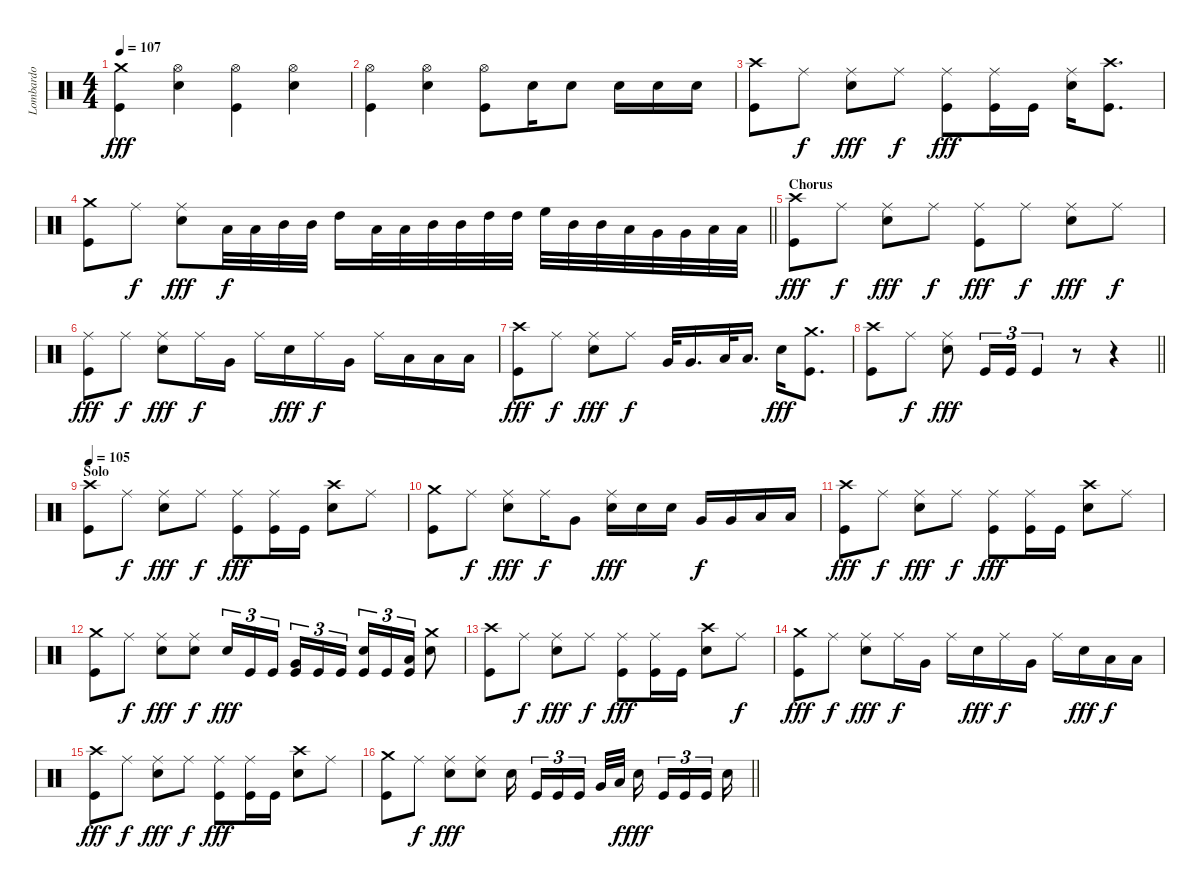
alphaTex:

\track ("Lombardo" "Lombardo") {instrument percussion}
\staff {score}
\articulation defaults
\ts (4 4)
\tempo 107
\clef neutral
\ks c
("Kick (hit)" "Crash medium (hit)").4{dy fff} ("Electric Snare (hit)" "Hi-Hat (open)").4 ("Kick (hit)" "Hi-Hat (open)").4 ("Electric Snare (hit)" "Hi-Hat (open)").4 |
("Kick (hit)" "Hi-Hat (open)").4 ("Electric Snare (hit)" "Hi-Hat (open)").4 ("Kick (hit)" "Hi-Hat (open)").8 "Electric Snare (hit)".16 "Electric Snare (hit)".8 "Electric Snare (hit)".16 "Electric Snare (hit)".16 "Electric Snare (hit)".16 |
("Kick (hit)" "Crash high (hit)").8 "Ride (middle)".8{dy f} ("Electric Snare (hit)" "Ride (middle)").8{dy fff} "Ride (middle)".8{dy f} ("Kick (hit)" "Ride (middle)").8{dy fff} ("Kick (hit)" "Ride (middle)").16 "Kick (hit)".16 ("Electric Snare (hit)" "Ride (middle)").16 ("Kick (hit)" "Crash high (hit)").8{d} |
\barLineRight lightlight
("Kick (hit)" "Crash medium (hit)").8 "Ride (middle)".8{dy f} ("Electric Snare (hit)" "Ride (middle)").8{dy fff} "Low Tom (hit)".32{dy f} "Low Tom (hit)".32 "Mid Tom (hit)".32 "Mid Tom (hit)".32 "High Tom (hit)".16 "Low Tom (hit)".32 "Low Tom (hit)".32 "Mid Tom (hit)".32 "Mid Tom (hit)".32 "High Tom (hit)".32 "High Tom (hit)".32 "High Floor Tom (hit)".32 "Mid Tom (hit)".32 "Mid Tom (hit)".32 "Low Tom (hit)".32 "Very Low Tom (hit)".32 "Very Low Tom (hit)".32 "Low Floor Tom (hit)".32 "Low Floor Tom (hit)".32 |
\section ("" "Chorus")
("Kick (hit)" "Crash high (hit)").8{dy fff} "Ride (middle)".8{dy f} ("Electric Snare (hit)" "Ride (middle)").8{dy fff} "Ride (middle)".8{dy f} ("Kick (hit)" "Ride (middle)").8{dy fff} "Ride (middle)".8{dy f} ("Electric Snare (hit)" "Ride (middle)").8{dy fff} "Ride (middle)".8{dy f} |
("Kick (hit)" "Ride (middle)").8{dy fff} "Ride (middle)".8{dy f} ("Electric Snare (hit)" "Ride (middle)").8{dy fff} "Ride (middle)".16{dy f} "Very Low Tom (hit)".16 "Ride (middle)".16 "Electric Snare (hit)".16{dy fff} "Ride (middle)".16{dy f} "Very Low Tom (hit)".16 "Ride (middle)".16 "Low Floor Tom (hit)".16 "Low Floor Tom (hit)".16 "Low Floor Tom (hit)".16 |
("Kick (hit)" "Crash high (hit)").8{dy fff} "Ride (middle)".8{dy f} ("Electric Snare (hit)" "Ride (middle)").8{dy fff} "Ride (middle)".8{dy f} "Very Low Tom (hit)".32 "Very Low Tom (hit)".16{d} "Low Floor Tom (hit)".32 "Low Floor Tom (hit)".16{d} "Electric Snare (hit)".16{dy fff} ("Kick (hit)" "Crash medium (hit)").8{d} |
\barLineRight lightlight
("Kick (hit)" "Crash high (hit)").8 "Ride (middle)".8{dy f} ("Electric Snare (hit)" "Ride (middle)").8{dy fff} "Kick (hit)".16{tu (3 2)} "Kick (hit)".16{tu (3 2)} "Kick (hit)".4{tu (3 2)} r.8 r.4 |
\section ("" "Solo")
\tempo 105
("Kick (hit)" "Crash high (hit)").8 "Ride (middle)".8{dy f} ("Electric Snare (hit)" "Ride (middle)").8{dy fff} "Ride (middle)".8{dy f} ("Kick (hit)" "Ride (middle)").8{dy fff} ("Kick (hit)" "Ride (middle)").16 "Kick (hit)".16 ("Electric Snare (hit)" "Crash high (hit)").8 "Ride (middle)".8 |
("Kick (hit)" "Crash medium (hit)").8 "Ride (middle)".8{dy f} ("Electric Snare (hit)" "Ride (middle)").8{dy fff} "Ride (middle)".16{dy f} "Very Low Tom (hit)".8 ("Electric Snare (hit)" "Ride (middle)").16{dy fff} "Electric Snare (hit)".16 "Electric Snare (hit)".16 "Very Low Tom (hit)".16{dy f} "Very Low Tom (hit)".16 "Low Floor Tom (hit)".16 "Low Floor Tom (hit)".16 |
("Kick (hit)" "Crash high (hit)").8{dy fff} "Ride (middle)".8{dy f} ("Electric Snare (hit)" "Ride (middle)").8{dy fff} "Ride (middle)".8{dy f} ("Kick (hit)" "Ride (middle)").8{dy fff} ("Kick (hit)" "Ride (middle)").16 "Kick (hit)".16 ("Electric Snare (hit)" "Crash high (hit)").8 "Ride (middle)".8 |
("Kick (hit)" "Crash medium (hit)").8 "Ride (middle)".8{dy f} ("Electric Snare (hit)" "Ride (middle)").8{dy fff} ("Electric Snare (hit)" "Ride (middle)").8{dy f} "Electric Snare (hit)".16{tu (3 2) dy fff} "Kick (hit)".16{tu (3 2)} "Kick (hit)".16{tu (3 2)} ("Kick (hit)" "Very Low Tom (hit)").16{tu (3 2)} "Kick (hit)".16{tu (3 2)} "Kick (hit)".16{tu (3 2)} ("Kick (hit)" "Electric Snare (hit)").16{tu (3 2)} "Kick (hit)".16{tu (3 2)} ("Kick (hit)" "Low Floor Tom (hit)").16{tu (3 2)} ("Electric Snare (hit)" "Crash medium (hit)").8 |
("Kick (hit)" "Crash high (hit)").8 "Ride (middle)".8{dy f} ("Electric Snare (hit)" "Ride (middle)").8{dy fff} "Ride (middle)".8{dy f} ("Kick (hit)" "Ride (middle)").8{dy fff} ("Kick (hit)" "Ride (middle)").16 "Kick (hit)".16 ("Electric Snare (hit)" "Crash high (hit)").8 "Ride (middle)".8{dy f} |
("Kick (hit)" "Crash medium (hit)").8{dy fff} "Ride (middle)".8{dy f} ("Electric Snare (hit)" "Ride (middle)").8{dy fff} "Ride (middle)".16{dy f} "Very Low Tom (hit)".16 "Ride (middle)".16 "Electric Snare (hit)".16{dy fff} "Ride (middle)".16{dy f} "Very Low Tom (hit)".16 "Ride (middle)".16 "Electric Snare (hit)".16{dy fff} "Low Floor Tom (hit)".16{dy f} "Low Floor Tom (hit)".16 |
("Kick (hit)" "Crash high (hit)").8{dy fff} "Ride (middle)".8{dy f} ("Electric Snare (hit)" "Ride (middle)").8{dy fff} "Ride (middle)".8{dy f} ("Kick (hit)" "Ride (middle)").8{dy fff} ("Kick (hit)" "Ride (middle)").16 "Kick (hit)".16 ("Electric Snare (hit)" "Crash high (hit)").8 "Ride (middle)".8 |
\barLineRight lightlight
("Kick (hit)" "Crash medium (hit)").8 "Ride (middle)".8{dy f} ("Electric Snare (hit)" "Ride (middle)").8{dy fff} ("Electric Snare (hit)" "Ride (middle)").8 "Electric Snare (hit)".16 "Kick (hit)".16{tu (3 2)} "Kick (hit)".16{tu (3 2)} "Kick (hit)".16{tu (3 2)} "Very Low Tom (hit)".32 "Low Floor Tom (hit)".32{dy f} "Electric Snare (hit)".16{dy fff} "Kick (hit)".16{tu (3 2)} "Kick (hit)".16{tu (3 2)} "Kick (hit)".16{tu (3 2)} "Electric Snare (hit)".16
